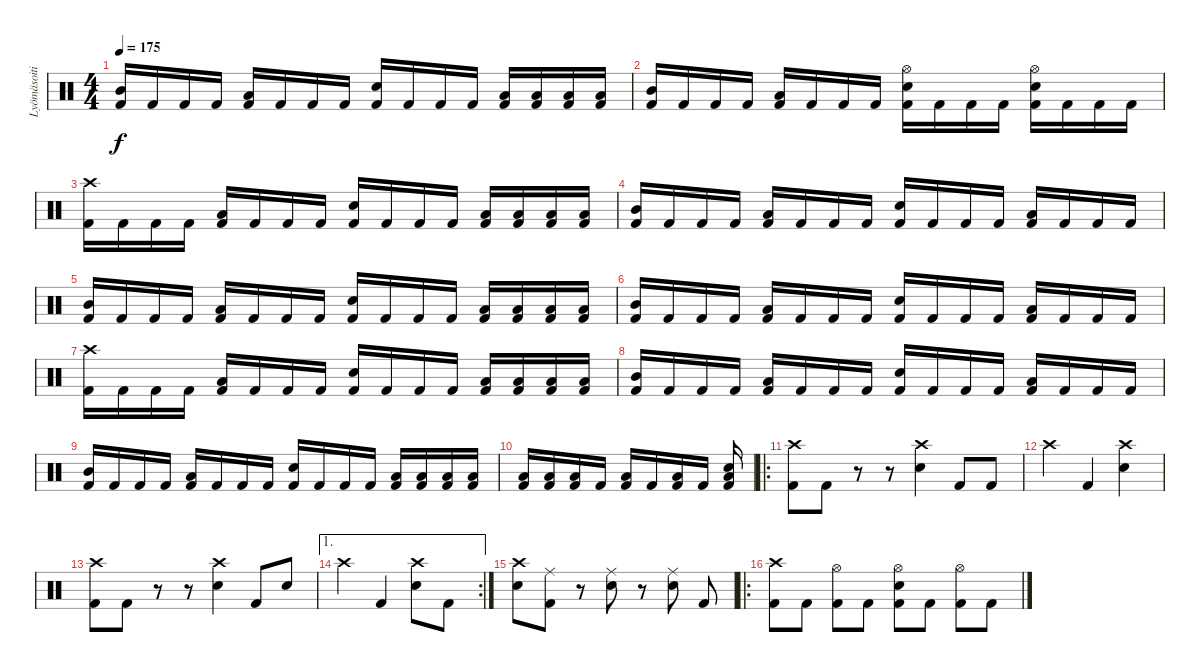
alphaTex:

\track ("Lyömäsoitin" "Lyömäsoiti") {instrument percussion}
\staff {score}
\articulation defaults
\ts (4 4)
\tempo 175
\clef neutral
\ks c
("Kick (hit) 2" "Mid Tom (hit)").16{dy f} "Kick (hit) 2".16 "Kick (hit) 2".16 "Kick (hit) 2".16 ("Kick (hit) 2" "Low Tom (hit)").16 "Kick (hit) 2".16 "Kick (hit) 2".16 "Kick (hit) 2".16 ("Kick (hit) 2" "Electric Snare (hit)").16 "Kick (hit) 2".16 "Kick (hit) 2".16 "Kick (hit) 2".16 ("Kick (hit) 2" "Low Tom (hit)").16 ("Kick (hit) 2" "Low Tom (hit)").16 ("Kick (hit) 2" "Low Tom (hit)").16 ("Kick (hit) 2" "Low Tom (hit)").16 |
("Kick (hit) 2" "Mid Tom (hit)").16 "Kick (hit) 2".16 "Kick (hit) 2".16 "Kick (hit) 2".16 ("Kick (hit) 2" "Low Tom (hit)").16 "Kick (hit) 2".16 "Kick (hit) 2".16 "Kick (hit) 2".16 ("Kick (hit) 2" "Electric Snare (hit)" "Hi-Hat (open)").16 "Kick (hit) 2".16 "Kick (hit) 2".16 "Kick (hit) 2".16 ("Kick (hit) 2" "Electric Snare (hit)" "Hi-Hat (open)").16 "Kick (hit) 2".16 "Kick (hit) 2".16 "Kick (hit) 2".16 |
("Kick (hit) 2" "Crash high (hit)").16 "Kick (hit) 2".16 "Kick (hit) 2".16 "Kick (hit) 2".16 ("Kick (hit) 2" "Low Tom (hit)").16 "Kick (hit) 2".16 "Kick (hit) 2".16 "Kick (hit) 2".16 ("Kick (hit) 2" "Electric Snare (hit)").16 "Kick (hit) 2".16 "Kick (hit) 2".16 "Kick (hit) 2".16 ("Kick (hit) 2" "Low Tom (hit)").16 ("Kick (hit) 2" "Low Tom (hit)").16 ("Kick (hit) 2" "Low Tom (hit)").16 ("Kick (hit) 2" "Low Tom (hit)").16 |
("Kick (hit) 2" "Mid Tom (hit)").16 "Kick (hit) 2".16 "Kick (hit) 2".16 "Kick (hit) 2".16 ("Kick (hit) 2" "Low Tom (hit)").16 "Kick (hit) 2".16 "Kick (hit) 2".16 "Kick (hit) 2".16 ("Kick (hit) 2" "Electric Snare (hit)").16 "Kick (hit) 2".16 "Kick (hit) 2".16 "Kick (hit) 2".16 ("Kick (hit) 2" "Low Floor Tom (hit)").16 "Kick (hit) 2".16 "Kick (hit) 2".16 "Kick (hit) 2".16 |
("Kick (hit) 2" "Mid Tom (hit)").16 "Kick (hit) 2".16 "Kick (hit) 2".16 "Kick (hit) 2".16 ("Kick (hit) 2" "Low Tom (hit)").16 "Kick (hit) 2".16 "Kick (hit) 2".16 "Kick (hit) 2".16 ("Kick (hit) 2" "Electric Snare (hit)").16 "Kick (hit) 2".16 "Kick (hit) 2".16 "Kick (hit) 2".16 ("Kick (hit) 2" "Low Tom (hit)").16 ("Kick (hit) 2" "Low Tom (hit)").16 ("Kick (hit) 2" "Low Tom (hit)").16 ("Kick (hit) 2" "Low Tom (hit)").16 |
("Kick (hit) 2" "Mid Tom (hit)").16 "Kick (hit) 2".16 "Kick (hit) 2".16 "Kick (hit) 2".16 ("Kick (hit) 2" "Low Tom (hit)").16 "Kick (hit) 2".16 "Kick (hit) 2".16 "Kick (hit) 2".16 ("Kick (hit) 2" "Electric Snare (hit)").16 "Kick (hit) 2".16 "Kick (hit) 2".16 "Kick (hit) 2".16 ("Kick (hit) 2" "Low Floor Tom (hit)").16 "Kick (hit) 2".16 "Kick (hit) 2".16 "Kick (hit) 2".16 |
("Kick (hit) 2" "Crash high (hit)").16 "Kick (hit) 2".16 "Kick (hit) 2".16 "Kick (hit) 2".16 ("Kick (hit) 2" "Low Tom (hit)").16 "Kick (hit) 2".16 "Kick (hit) 2".16 "Kick (hit) 2".16 ("Kick (hit) 2" "Electric Snare (hit)").16 "Kick (hit) 2".16 "Kick (hit) 2".16 "Kick (hit) 2".16 ("Kick (hit) 2" "Low Tom (hit)").16 ("Kick (hit) 2" "Low Tom (hit)").16 ("Kick (hit) 2" "Low Tom (hit)").16 ("Kick (hit) 2" "Low Tom (hit)").16 |
("Kick (hit) 2" "Mid Tom (hit)").16 "Kick (hit) 2".16 "Kick (hit) 2".16 "Kick (hit) 2".16 ("Kick (hit) 2" "Low Tom (hit)").16 "Kick (hit) 2".16 "Kick (hit) 2".16 "Kick (hit) 2".16 ("Kick (hit) 2" "Electric Snare (hit)").16 "Kick (hit) 2".16 "Kick (hit) 2".16 "Kick (hit) 2".16 ("Kick (hit) 2" "Low Floor Tom (hit)").16 "Kick (hit) 2".16 "Kick (hit) 2".16 "Kick (hit) 2".16 |
("Kick (hit) 2" "Mid Tom (hit)").16 "Kick (hit) 2".16 "Kick (hit) 2".16 "Kick (hit) 2".16 ("Kick (hit) 2" "Low Tom (hit)").16 "Kick (hit) 2".16 "Kick (hit) 2".16 "Kick (hit) 2".16 ("Kick (hit) 2" "Electric Snare (hit)").16 "Kick (hit) 2".16 "Kick (hit) 2".16 "Kick (hit) 2".16 ("Kick (hit) 2" "Low Tom (hit)").16 ("Kick (hit) 2" "Low Tom (hit)").16 ("Kick (hit) 2" "Low Tom (hit)").16 ("Kick (hit) 2" "Low Tom (hit)").16 |
("Kick (hit) 2" "Low Tom (hit)").16 ("Kick (hit) 2" "Low Tom (hit)").16 ("Kick (hit) 2" "Low Tom (hit)").16 "Kick (hit) 2".16 ("Kick (hit) 2" "Low Floor Tom (hit)").16 "Kick (hit) 2".16 ("Kick (hit) 2" "Low Floor Tom (hit)").16 "Kick (hit) 2".16 ("Kick (hit) 2" "Electric Snare (hit)" "Low Floor Tom (hit)").16 |
\ro
("Kick (hit) 2" "Crash high (hit)").8 "Kick (hit) 2".8 r.8 r.8 ("Electric Snare (hit)" "Crash high (hit)").4 "Kick (hit) 2".8 "Kick (hit) 2".8 |
"Crash high (hit)".4 "Kick (hit) 2".4 ("Electric Snare (hit)" "Crash high (hit)").4 |
("Kick (hit) 2" "Crash high (hit)").8 "Kick (hit) 2".8 r.8 r.8 ("Electric Snare (hit)" "Crash high (hit)").4 "Kick (hit) 2".8 "Electric Snare (hit)".8 |
\ae 1
\rc 2 "Crash high (hit)".4 "Kick (hit) 2".4
("Electric Snare (hit)" "Crash high (hit)").8 "Kick (hit) 2".8 |
("Electric Snare (hit)" "Crash high (hit)").8 ("Kick (hit) 2" "Ride (middle)").8 r.8 ("Electric Snare (hit)" "Ride (middle)").8 r.8 ("Electric Snare (hit)" "Ride (middle)").8 "Kick (hit) 2".8 |
\ro
("Kick (hit) 2" "Crash high (hit)").8 "Kick (hit) 2".8 ("Kick (hit) 2" "Hi-Hat (open)").8 "Kick (hit) 2".8 ("Kick (hit) 2" "Electric Snare (hit)" "Hi-Hat (open)").8 "Kick (hit) 2".8 ("Kick (hit) 2" "Hi-Hat (open)").8 "Kick (hit) 2".8
